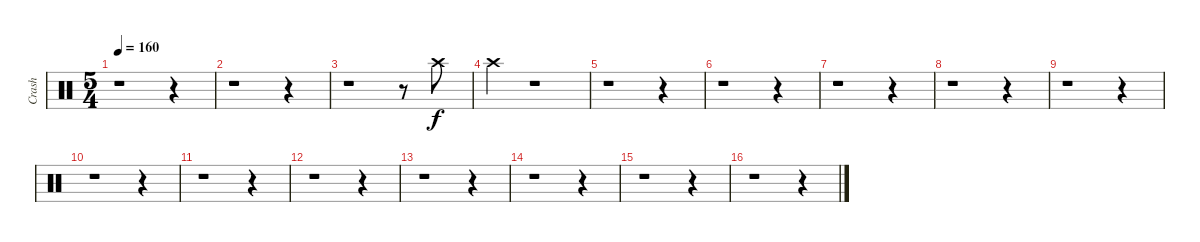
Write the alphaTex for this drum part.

\track ("Crash" "Crash") {instrument percussion}
\staff {score}
\articulation defaults
\ts (5 4)
\tempo 160
\clef neutral
\ks c
r.1{dy f} r.4 |
r.1 r.4 |
r.1 r.8 "Crash high (hit)".8 |
"Crash high (hit)".4 r.1 |
r.1 r.4 |
r.1 r.4 |
r.1 r.4 |
r.1 r.4 |
r.1 r.4 |
r.1 r.4 |
r.1 r.4 |
r.1 r.4 |
r.1 r.4 |
r.1 r.4 |
r.1 r.4 |
r.1 r.4
